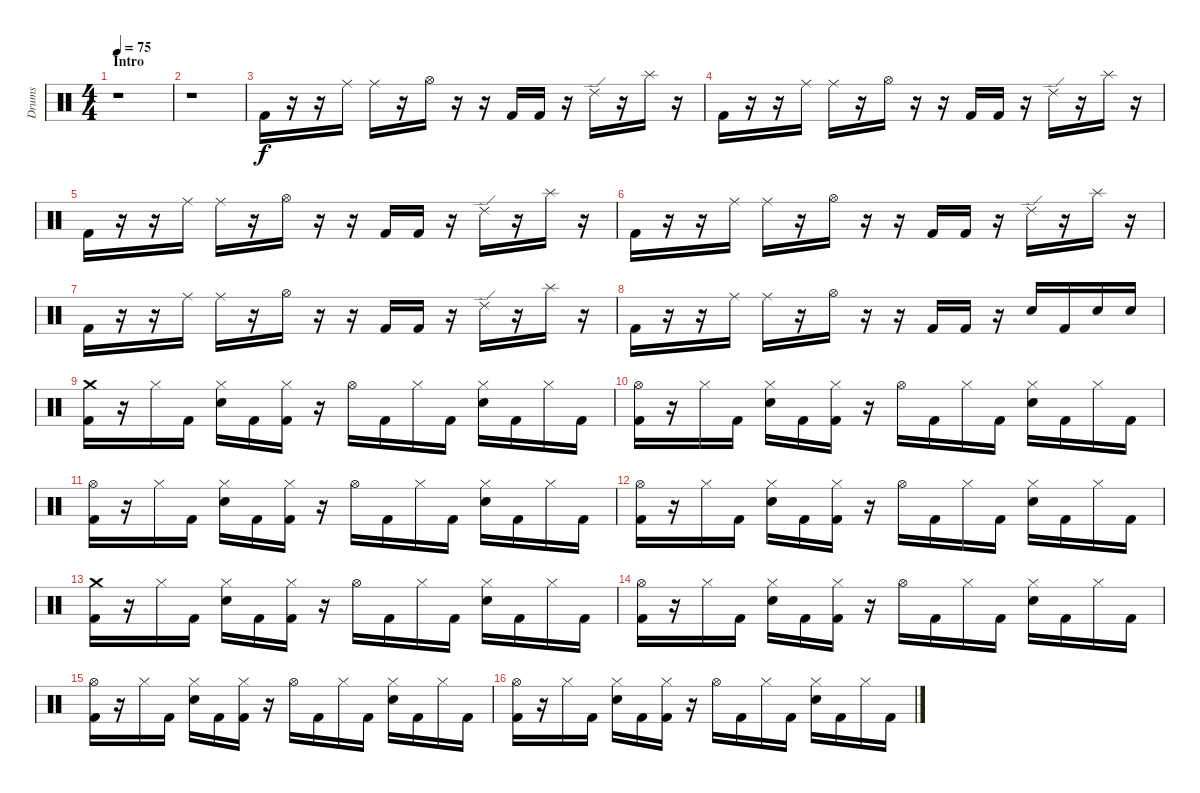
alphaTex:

\track ("Drums" "Drums") {instrument percussion}
\staff {score}
\articulation defaults
\ts (4 4)
\section ("" "Intro")
\tempo 75
\clef neutral
\ks c
r.1{dy f} |
r.1 |
"Kick (hit) 2".16 r.16 r.16 "Ride (middle)".16 "Ride (middle)".16 r.16 "Hi-Hat (open)".16 r.16 r.16 "Kick (hit) 2".16 "Kick (hit) 2".16 r.16 "Ride (edge) 2".16 r.16 "Splash (hit)".16 r.16 |
"Kick (hit) 2".16 r.16 r.16 "Ride (middle)".16 "Ride (middle)".16 r.16 "Hi-Hat (open)".16 r.16 r.16 "Kick (hit) 2".16 "Kick (hit) 2".16 r.16 "Ride (edge) 2".16 r.16 "Splash (hit)".16 r.16 |
"Kick (hit) 2".16 r.16 r.16 "Ride (middle)".16 "Ride (middle)".16 r.16 "Hi-Hat (open)".16 r.16 r.16 "Kick (hit) 2".16 "Kick (hit) 2".16 r.16 "Ride (edge) 2".16 r.16 "Splash (hit)".16 r.16 |
"Kick (hit) 2".16 r.16 r.16 "Ride (middle)".16 "Ride (middle)".16 r.16 "Hi-Hat (open)".16 r.16 r.16 "Kick (hit) 2".16 "Kick (hit) 2".16 r.16 "Ride (edge) 2".16 r.16 "Splash (hit)".16 r.16 |
"Kick (hit) 2".16 r.16 r.16 "Ride (middle)".16 "Ride (middle)".16 r.16 "Hi-Hat (open)".16 r.16 r.16 "Kick (hit) 2".16 "Kick (hit) 2".16 r.16 "Ride (edge) 2".16 r.16 "Splash (hit)".16 r.16 |
"Kick (hit) 2".16 r.16 r.16 "Ride (middle)".16 "Ride (middle)".16 r.16 "Hi-Hat (open)".16 r.16 r.16 "Kick (hit) 2".16 "Kick (hit) 2".16 r.16 "Snare (hit) 2".16 "Kick (hit) 2".16 "Snare (hit) 2".16 "Snare (hit) 2".16 |
("Crash medium (hit)" "Kick (hit) 2").16 r.16 "Hi-Hat (closed)".16 "Kick (hit) 2".16 ("Hi-Hat (closed)" "Snare (hit) 2").16 "Kick (hit) 2".16 ("Hi-Hat (closed)" "Kick (hit) 2").16 r.16 "Hi-Hat (open)".16 "Kick (hit) 2".16 "Hi-Hat (closed)".16 "Kick (hit) 2".16 ("Hi-Hat (closed)" "Snare (hit) 2").16 "Kick (hit) 2".16 "Hi-Hat (closed)".16 "Kick (hit) 2".16 |
("Hi-Hat (open)" "Kick (hit) 2").16 r.16 "Hi-Hat (closed)".16 "Kick (hit) 2".16 ("Hi-Hat (closed)" "Snare (hit) 2").16 "Kick (hit) 2".16 ("Hi-Hat (closed)" "Kick (hit) 2").16 r.16 "Hi-Hat (open)".16 "Kick (hit) 2".16 "Hi-Hat (closed)".16 "Kick (hit) 2".16 ("Hi-Hat (closed)" "Snare (hit) 2").16 "Kick (hit) 2".16 "Hi-Hat (closed)".16 "Kick (hit) 2".16 |
("Hi-Hat (open)" "Kick (hit) 2").16 r.16 "Hi-Hat (closed)".16 "Kick (hit) 2".16 ("Hi-Hat (closed)" "Snare (hit) 2").16 "Kick (hit) 2".16 ("Hi-Hat (closed)" "Kick (hit) 2").16 r.16 "Hi-Hat (open)".16 "Kick (hit) 2".16 "Hi-Hat (closed)".16 "Kick (hit) 2".16 ("Hi-Hat (closed)" "Snare (hit) 2").16 "Kick (hit) 2".16 "Hi-Hat (closed)".16 "Kick (hit) 2".16 |
("Hi-Hat (open)" "Kick (hit) 2").16 r.16 "Hi-Hat (closed)".16 "Kick (hit) 2".16 ("Hi-Hat (closed)" "Snare (hit) 2").16 "Kick (hit) 2".16 ("Hi-Hat (closed)" "Kick (hit) 2").16 r.16 "Hi-Hat (open)".16 "Kick (hit) 2".16 "Hi-Hat (closed)".16 "Kick (hit) 2".16 ("Hi-Hat (closed)" "Snare (hit) 2").16 "Kick (hit) 2".16 "Hi-Hat (closed)".16 "Kick (hit) 2".16 |
("Crash medium (hit)" "Kick (hit) 2").16 r.16 "Hi-Hat (closed)".16 "Kick (hit) 2".16 ("Hi-Hat (closed)" "Snare (hit) 2").16 "Kick (hit) 2".16 ("Hi-Hat (closed)" "Kick (hit) 2").16 r.16 "Hi-Hat (open)".16 "Kick (hit) 2".16 "Hi-Hat (closed)".16 "Kick (hit) 2".16 ("Hi-Hat (closed)" "Snare (hit) 2").16 "Kick (hit) 2".16 "Hi-Hat (closed)".16 "Kick (hit) 2".16 |
("Hi-Hat (open)" "Kick (hit) 2").16 r.16 "Hi-Hat (closed)".16 "Kick (hit) 2".16 ("Hi-Hat (closed)" "Snare (hit) 2").16 "Kick (hit) 2".16 ("Hi-Hat (closed)" "Kick (hit) 2").16 r.16 "Hi-Hat (open)".16 "Kick (hit) 2".16 "Hi-Hat (closed)".16 "Kick (hit) 2".16 ("Hi-Hat (closed)" "Snare (hit) 2").16 "Kick (hit) 2".16 "Hi-Hat (closed)".16 "Kick (hit) 2".16 |
("Hi-Hat (open)" "Kick (hit) 2").16 r.16 "Hi-Hat (closed)".16 "Kick (hit) 2".16 ("Hi-Hat (closed)" "Snare (hit) 2").16 "Kick (hit) 2".16 ("Hi-Hat (closed)" "Kick (hit) 2").16 r.16 "Hi-Hat (open)".16 "Kick (hit) 2".16 "Hi-Hat (closed)".16 "Kick (hit) 2".16 ("Hi-Hat (closed)" "Snare (hit) 2").16 "Kick (hit) 2".16 "Hi-Hat (closed)".16 "Kick (hit) 2".16 |
("Hi-Hat (open)" "Kick (hit) 2").16 r.16 "Hi-Hat (closed)".16 "Kick (hit) 2".16 ("Hi-Hat (closed)" "Snare (hit) 2").16 "Kick (hit) 2".16 ("Hi-Hat (closed)" "Kick (hit) 2").16 r.16 "Hi-Hat (open)".16 "Kick (hit) 2".16 "Hi-Hat (closed)".16 "Kick (hit) 2".16 ("Hi-Hat (closed)" "Snare (hit) 2").16 "Kick (hit) 2".16 "Hi-Hat (closed)".16 "Kick (hit) 2".16
